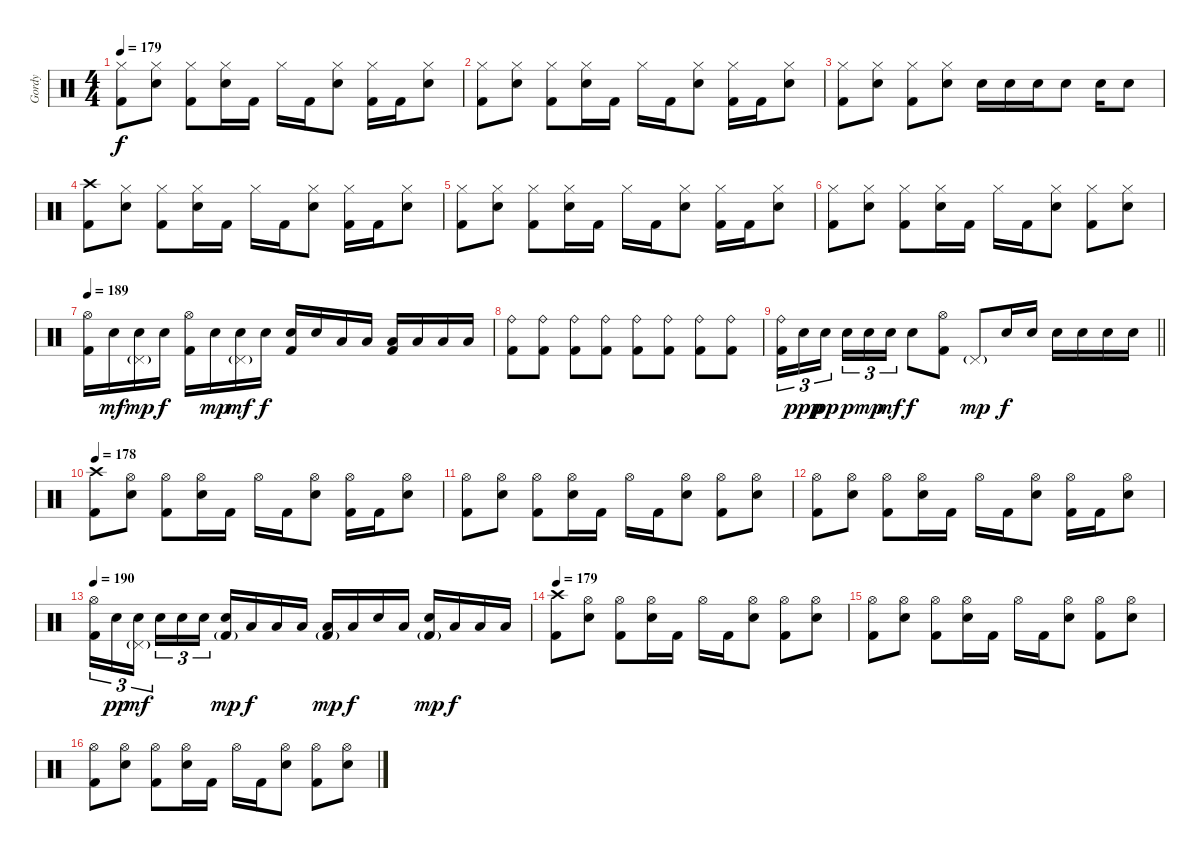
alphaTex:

\track ("Gordy" "Gordy") {instrument percussion}
\staff {score}
\articulation defaults
\ts (4 4)
\tempo 179
\clef neutral
\ks c
("Hi-Hat (closed)" "Kick (hit) 2").8{dy f} ("Hi-Hat (closed)" "Electric Snare (hit)").8 ("Hi-Hat (closed)" "Kick (hit) 2").8 ("Hi-Hat (closed)" "Electric Snare (hit)").16 "Kick (hit) 2".16 "Hi-Hat (closed)".16 "Kick (hit) 2".16 ("Hi-Hat (closed)" "Electric Snare (hit)").8 ("Hi-Hat (closed)" "Kick (hit) 2").16 "Kick (hit) 2".16 ("Hi-Hat (closed)" "Electric Snare (hit)").8 |
("Hi-Hat (closed)" "Kick (hit) 2").8 ("Hi-Hat (closed)" "Electric Snare (hit)").8 ("Hi-Hat (closed)" "Kick (hit) 2").8 ("Hi-Hat (closed)" "Electric Snare (hit)").16 "Kick (hit) 2".16 "Hi-Hat (closed)".16 "Kick (hit) 2".16 ("Hi-Hat (closed)" "Electric Snare (hit)").8 ("Hi-Hat (closed)" "Kick (hit) 2").16 "Kick (hit) 2".16 ("Hi-Hat (closed)" "Electric Snare (hit)").8 |
("Hi-Hat (closed)" "Kick (hit) 2").8 ("Hi-Hat (closed)" "Electric Snare (hit)").8 ("Hi-Hat (closed)" "Kick (hit) 2").8 ("Hi-Hat (closed)" "Electric Snare (hit)").8 "Electric Snare (hit)".16 "Electric Snare (hit)".16 "Electric Snare (hit)".16 "Electric Snare (hit)".8 "Electric Snare (hit)".16 "Electric Snare (hit)".8 |
("Crash high (hit)" "Kick (hit) 2").8 ("Hi-Hat (closed)" "Electric Snare (hit)").8 ("Hi-Hat (closed)" "Kick (hit) 2").8 ("Hi-Hat (closed)" "Electric Snare (hit)").16 "Kick (hit) 2".16 "Hi-Hat (closed)".16 "Kick (hit) 2".16 ("Hi-Hat (closed)" "Electric Snare (hit)").8 ("Hi-Hat (closed)" "Kick (hit) 2").16 "Kick (hit) 2".16 ("Hi-Hat (closed)" "Electric Snare (hit)").8 |
("Hi-Hat (closed)" "Kick (hit) 2").8 ("Hi-Hat (closed)" "Electric Snare (hit)").8 ("Hi-Hat (closed)" "Kick (hit) 2").8 ("Hi-Hat (closed)" "Electric Snare (hit)").16 "Kick (hit) 2".16 "Hi-Hat (closed)".16 "Kick (hit) 2".16 ("Hi-Hat (closed)" "Electric Snare (hit)").8 ("Hi-Hat (closed)" "Kick (hit) 2").16 "Kick (hit) 2".16 ("Hi-Hat (closed)" "Electric Snare (hit)").8 |
("Hi-Hat (closed)" "Kick (hit) 2").8 ("Hi-Hat (closed)" "Electric Snare (hit)").8 ("Hi-Hat (closed)" "Kick (hit) 2").8 ("Hi-Hat (closed)" "Electric Snare (hit)").16 "Kick (hit) 2".16 "Hi-Hat (closed)".16 "Kick (hit) 2".16 ("Hi-Hat (closed)" "Electric Snare (hit)").8 ("Hi-Hat (closed)" "Kick (hit) 2").8 ("Hi-Hat (closed)" "Electric Snare (hit)").8 |
\tempo 189
("Hi-Hat (open)" "Kick (hit) 2").16 "Electric Snare (hit)".16{dy mf} ("Pedal Hi-Hat (hit)"{g} "Electric Snare (hit)").16{dy mp} "Electric Snare (hit)".16{dy f} ("Hi-Hat (open)" "Kick (hit) 2").16 "Electric Snare (hit)".16{dy mp} ("Pedal Hi-Hat (hit)"{g} "Electric Snare (hit)").16{dy mf} "Electric Snare (hit)".16{dy f} ("Electric Snare (hit)" "Kick (hit) 2").16 "Electric Snare (hit)".16 "Low Tom (hit)".16 "Low Tom (hit)".16 ("Low Tom (hit)" "Kick (hit) 2").16 "Low Tom (hit)".16 "Low Floor Tom (hit)".16 "Low Floor Tom (hit)".16 |
("Ride (bell)" "Kick (hit) 2").8 ("Ride (bell)" "Kick (hit) 2").8 ("Ride (bell)" "Kick (hit) 2").8 ("Ride (bell)" "Kick (hit) 2").8 ("Ride (bell)" "Kick (hit) 2").8 ("Ride (bell)" "Kick (hit) 2").8 ("Ride (bell)" "Kick (hit) 2").8 ("Ride (bell)" "Kick (hit) 2").8 |
\barLineRight lightlight
("Ride (bell)" "Kick (hit) 2").16{tu (3 2)} "Electric Snare (hit)".16{tu (3 2) dy ppp} "Electric Snare (hit)".16{tu (3 2) dy pp beam splitsecondary} "Electric Snare (hit)".16{tu (3 2) dy p} "Electric Snare (hit)".16{tu (3 2) dy mp} "Electric Snare (hit)".16{tu (3 2) dy mf} "Electric Snare (hit)".8{dy f} ("Hi-Hat (open)" "Kick (hit) 2").8 "Pedal Hi-Hat (hit)"{g}.8{dy mp} "Electric Snare (hit)".16{dy f} "Electric Snare (hit)".16 "Electric Snare (hit)".16 "Electric Snare (hit)".16 "Electric Snare (hit)".16 "Electric Snare (hit)".16 |
\section ("" "")
\tempo 178
("Crash high (hit)" "Kick (hit) 2").8 ("Hi-Hat (open)" "Electric Snare (hit)").8 ("Hi-Hat (open)" "Kick (hit) 2").8 ("Hi-Hat (open)" "Electric Snare (hit)").16 "Kick (hit) 2".16 "Hi-Hat (open)".16 "Kick (hit) 2".16 ("Hi-Hat (open)" "Electric Snare (hit)").8 ("Hi-Hat (open)" "Kick (hit) 2").16 "Kick (hit) 2".16 ("Hi-Hat (open)" "Electric Snare (hit)").8 |
("Hi-Hat (open)" "Kick (hit) 2").8 ("Hi-Hat (open)" "Electric Snare (hit)").8 ("Hi-Hat (open)" "Kick (hit) 2").8 ("Hi-Hat (open)" "Electric Snare (hit)").16 "Kick (hit) 2".16 "Hi-Hat (open)".16 "Kick (hit) 2".16 ("Hi-Hat (open)" "Electric Snare (hit)").8 ("Hi-Hat (open)" "Kick (hit) 2").8 ("Hi-Hat (open)" "Electric Snare (hit)").8 |
("Hi-Hat (open)" "Kick (hit) 2").8 ("Hi-Hat (open)" "Electric Snare (hit)").8 ("Hi-Hat (open)" "Kick (hit) 2").8 ("Hi-Hat (open)" "Electric Snare (hit)").16 "Kick (hit) 2".16 "Hi-Hat (open)".16 "Kick (hit) 2".16 ("Hi-Hat (open)" "Electric Snare (hit)").8 ("Hi-Hat (open)" "Kick (hit) 2").16 "Kick (hit) 2".16 ("Hi-Hat (open)" "Electric Snare (hit)").8 |
\tempo 190
("Hi-Hat (open)" "Kick (hit) 2").16{tu (3 2)} "Electric Snare (hit)".16{tu (3 2) dy pp} ("Pedal Hi-Hat (hit)"{g} "Electric Snare (hit)").16{tu (3 2) dy mf beam splitsecondary} "Electric Snare (hit)".16{tu (3 2)} "Electric Snare (hit)".16{tu (3 2)} "Electric Snare (hit)".16{tu (3 2)} ("Electric Snare (hit)" "Kick (hit) 2"{g}).16{dy mp} "Low Tom (hit)".16{dy f} "Low Tom (hit)".16 "Low Tom (hit)".16 ("Low Tom (hit)" "Kick (hit) 2"{g}).16{dy mp} "Low Tom (hit)".16{dy f} "Electric Snare (hit)".16 "Low Tom (hit)".16 ("Electric Snare (hit)" "Kick (hit) 2"{g}).16{dy mp} "Low Tom (hit)".16{dy f} "Low Floor Tom (hit)".16 "Low Floor Tom (hit)".16 |
\tempo 179
("Crash high (hit)" "Kick (hit) 2").8 ("Hi-Hat (open)" "Electric Snare (hit)").8 ("Hi-Hat (open)" "Kick (hit) 2").8 ("Hi-Hat (open)" "Electric Snare (hit)").16 "Kick (hit) 2".16 "Hi-Hat (open)".16 "Kick (hit) 2".16 ("Hi-Hat (open)" "Electric Snare (hit)").8 ("Hi-Hat (open)" "Kick (hit) 2").8 ("Hi-Hat (open)" "Electric Snare (hit)").8 |
("Hi-Hat (open)" "Kick (hit) 2").8 ("Hi-Hat (open)" "Electric Snare (hit)").8 ("Hi-Hat (open)" "Kick (hit) 2").8 ("Hi-Hat (open)" "Electric Snare (hit)").16 "Kick (hit) 2".16 "Hi-Hat (open)".16 "Kick (hit) 2".16 ("Hi-Hat (open)" "Electric Snare (hit)").8 ("Hi-Hat (open)" "Kick (hit) 2").8 ("Hi-Hat (open)" "Electric Snare (hit)").8 |
("Hi-Hat (open)" "Kick (hit) 2").8 ("Hi-Hat (open)" "Electric Snare (hit)").8 ("Hi-Hat (open)" "Kick (hit) 2").8 ("Hi-Hat (open)" "Electric Snare (hit)").16 "Kick (hit) 2".16 "Hi-Hat (open)".16 "Kick (hit) 2".16 ("Hi-Hat (open)" "Electric Snare (hit)").8 ("Hi-Hat (open)" "Kick (hit) 2").8 ("Hi-Hat (open)" "Electric Snare (hit)").8
